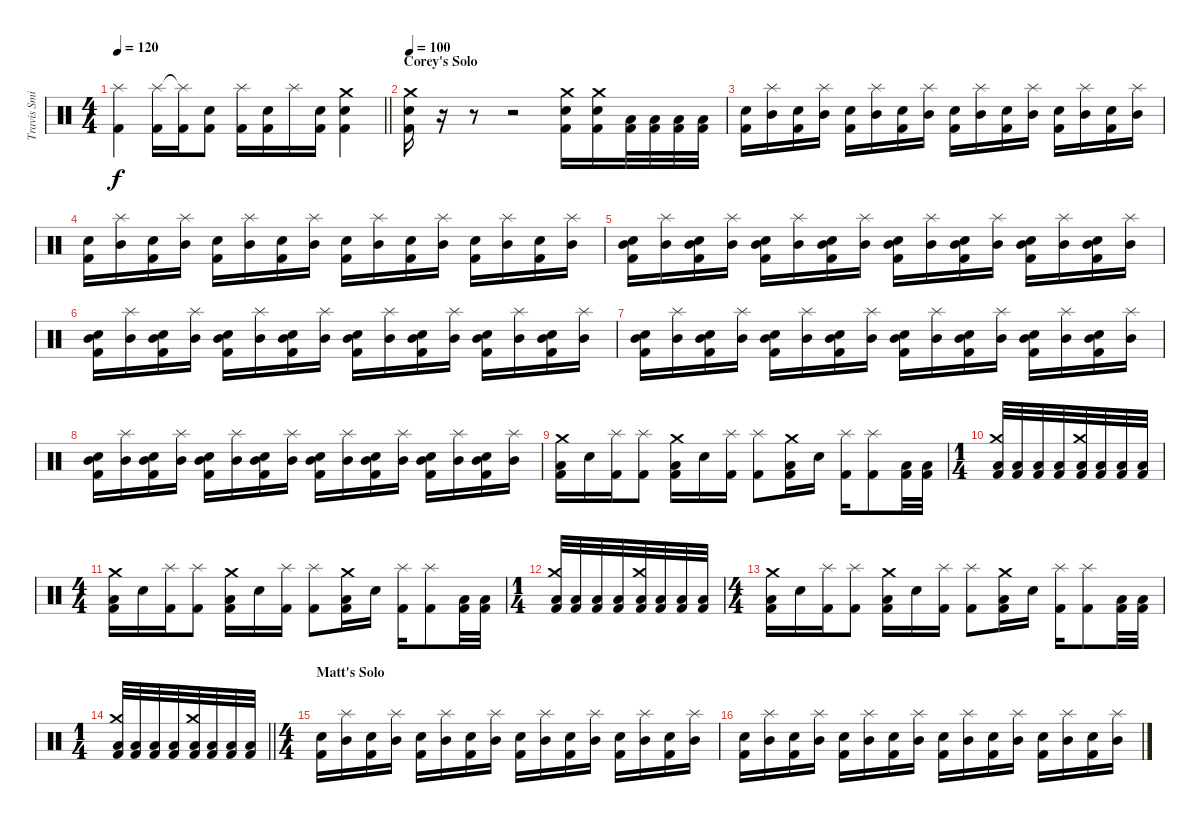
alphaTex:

\track ("Travis Smith" "Travis Smi") {instrument percussion}
\staff {score}
\articulation defaults
\ts (4 4)
\tempo 120
\clef neutral
\barLineRight lightlight
\ks c
("Splash (hit)" "Kick (hit) 2").4{dy f} ("Splash (hit)" "Kick (hit) 2").16 ("Splash (hit)"{t} "Kick (hit) 2").16 ("Snare (hit) 2" "Kick (hit) 2").8 ("Splash (hit)" "Kick (hit) 2").16 ("Snare (hit) 2" "Kick (hit) 2").16 "Splash (hit)".16 ("Snare (hit) 2" "Kick (hit) 2").16 ("Crash medium (hit)" "Snare (hit) 2" "Kick (hit) 2").4 |
\section ("" "Corey's Solo")
\tempo 100
("Crash medium (hit)" "Snare (hit) 2" "Kick (hit) 2").16 r.16 r.8 r.2 ("Crash medium (hit)" "Snare (hit) 2" "Kick (hit) 2").16 ("Crash medium (hit)" "Snare (hit) 2" "Kick (hit) 2").16 ("Low Tom (hit)" "Kick (hit) 2").32 ("Low Tom (hit)" "Kick (hit) 2").32 ("Low Tom (hit)" "Kick (hit) 2").32 ("Low Tom (hit)" "Kick (hit) 2").32 |
("Snare (hit) 2" "Kick (hit) 2").16 ("Splash (hit)" "Mid Tom (hit)").16 ("Snare (hit) 2" "Kick (hit) 2").16 ("Splash (hit)" "Mid Tom (hit)").16 ("Snare (hit) 2" "Kick (hit) 2").16 ("Splash (hit)" "Mid Tom (hit)").16 ("Snare (hit) 2" "Kick (hit) 2").16 ("Splash (hit)" "Mid Tom (hit)").16 ("Snare (hit) 2" "Kick (hit) 2").16 ("Splash (hit)" "Mid Tom (hit)").16 ("Snare (hit) 2" "Kick (hit) 2").16 ("Splash (hit)" "Mid Tom (hit)").16 ("Snare (hit) 2" "Kick (hit) 2").16 ("Splash (hit)" "Mid Tom (hit)").16 ("Snare (hit) 2" "Kick (hit) 2").16 ("Splash (hit)" "Mid Tom (hit)").16 |
("Snare (hit) 2" "Kick (hit) 2").16 ("Splash (hit)" "Mid Tom (hit)").16 ("Snare (hit) 2" "Kick (hit) 2").16 ("Splash (hit)" "Mid Tom (hit)").16 ("Snare (hit) 2" "Kick (hit) 2").16 ("Splash (hit)" "Mid Tom (hit)").16 ("Snare (hit) 2" "Kick (hit) 2").16 ("Splash (hit)" "Mid Tom (hit)").16 ("Snare (hit) 2" "Kick (hit) 2").16 ("Splash (hit)" "Mid Tom (hit)").16 ("Snare (hit) 2" "Kick (hit) 2").16 ("Splash (hit)" "Mid Tom (hit)").16 ("Snare (hit) 2" "Kick (hit) 2").16 ("Splash (hit)" "Mid Tom (hit)").16 ("Snare (hit) 2" "Kick (hit) 2").16 ("Splash (hit)" "Mid Tom (hit)").16 |
("Snare (hit) 2" "Mid Tom (hit)" "Kick (hit) 2").16 ("Splash (hit)" "Mid Tom (hit)").16 ("Snare (hit) 2" "Mid Tom (hit)" "Kick (hit) 2").16 ("Splash (hit)" "Mid Tom (hit)").16 ("Snare (hit) 2" "Mid Tom (hit)" "Kick (hit) 2").16 ("Splash (hit)" "Mid Tom (hit)").16 ("Snare (hit) 2" "Mid Tom (hit)" "Kick (hit) 2").16 ("Splash (hit)" "Mid Tom (hit)").16 ("Snare (hit) 2" "Mid Tom (hit)" "Kick (hit) 2").16 ("Splash (hit)" "Mid Tom (hit)").16 ("Snare (hit) 2" "Mid Tom (hit)" "Kick (hit) 2").16 ("Splash (hit)" "Mid Tom (hit)").16 ("Snare (hit) 2" "Mid Tom (hit)" "Kick (hit) 2").16 ("Splash (hit)" "Mid Tom (hit)").16 ("Snare (hit) 2" "Mid Tom (hit)" "Kick (hit) 2").16 ("Splash (hit)" "Mid Tom (hit)").16 |
("Snare (hit) 2" "Mid Tom (hit)" "Kick (hit) 2").16 ("Splash (hit)" "Mid Tom (hit)").16 ("Snare (hit) 2" "Mid Tom (hit)" "Kick (hit) 2").16 ("Splash (hit)" "Mid Tom (hit)").16 ("Snare (hit) 2" "Mid Tom (hit)" "Kick (hit) 2").16 ("Splash (hit)" "Mid Tom (hit)").16 ("Snare (hit) 2" "Mid Tom (hit)" "Kick (hit) 2").16 ("Splash (hit)" "Mid Tom (hit)").16 ("Snare (hit) 2" "Mid Tom (hit)" "Kick (hit) 2").16 ("Splash (hit)" "Mid Tom (hit)").16 ("Snare (hit) 2" "Mid Tom (hit)" "Kick (hit) 2").16 ("Splash (hit)" "Mid Tom (hit)").16 ("Snare (hit) 2" "Mid Tom (hit)" "Kick (hit) 2").16 ("Splash (hit)" "Mid Tom (hit)").16 ("Snare (hit) 2" "Mid Tom (hit)" "Kick (hit) 2").16 ("Splash (hit)" "Mid Tom (hit)").16 |
("Snare (hit) 2" "Mid Tom (hit)" "Kick (hit) 2").16 ("Splash (hit)" "Mid Tom (hit)").16 ("Snare (hit) 2" "Mid Tom (hit)" "Kick (hit) 2").16 ("Splash (hit)" "Mid Tom (hit)").16 ("Snare (hit) 2" "Mid Tom (hit)" "Kick (hit) 2").16 ("Splash (hit)" "Mid Tom (hit)").16 ("Snare (hit) 2" "Mid Tom (hit)" "Kick (hit) 2").16 ("Splash (hit)" "Mid Tom (hit)").16 ("Snare (hit) 2" "Mid Tom (hit)" "Kick (hit) 2").16 ("Splash (hit)" "Mid Tom (hit)").16 ("Snare (hit) 2" "Mid Tom (hit)" "Kick (hit) 2").16 ("Splash (hit)" "Mid Tom (hit)").16 ("Snare (hit) 2" "Mid Tom (hit)" "Kick (hit) 2").16 ("Splash (hit)" "Mid Tom (hit)").16 ("Snare (hit) 2" "Mid Tom (hit)" "Kick (hit) 2").16 ("Splash (hit)" "Mid Tom (hit)").16 |
("Snare (hit) 2" "Mid Tom (hit)" "Kick (hit) 2").16 ("Splash (hit)" "Mid Tom (hit)").16 ("Snare (hit) 2" "Mid Tom (hit)" "Kick (hit) 2").16 ("Splash (hit)" "Mid Tom (hit)").16 ("Snare (hit) 2" "Mid Tom (hit)" "Kick (hit) 2").16 ("Splash (hit)" "Mid Tom (hit)").16 ("Snare (hit) 2" "Mid Tom (hit)" "Kick (hit) 2").16 ("Splash (hit)" "Mid Tom (hit)").16 ("Snare (hit) 2" "Mid Tom (hit)" "Kick (hit) 2").16 ("Splash (hit)" "Mid Tom (hit)").16 ("Snare (hit) 2" "Mid Tom (hit)" "Kick (hit) 2").16 ("Splash (hit)" "Mid Tom (hit)").16 ("Snare (hit) 2" "Mid Tom (hit)" "Kick (hit) 2").16 ("Splash (hit)" "Mid Tom (hit)").16 ("Snare (hit) 2" "Mid Tom (hit)" "Kick (hit) 2").16 ("Splash (hit)" "Mid Tom (hit)").16 |
("Crash medium (hit)" "Low Floor Tom (hit)" "Kick (hit) 2").16 "Snare (hit) 2".16 ("Splash (hit)" "Kick (hit) 2").16 ("Splash (hit)" "Kick (hit) 2").8 ("Crash medium (hit)" "Low Floor Tom (hit)" "Kick (hit) 2").16 "Snare (hit) 2".16 ("Splash (hit)" "Kick (hit) 2").16 ("Splash (hit)" "Kick (hit) 2").8 ("Crash medium (hit)" "Low Floor Tom (hit)" "Kick (hit) 2").16 "Snare (hit) 2".16 ("Splash (hit)" "Kick (hit) 2").16 ("Splash (hit)" "Kick (hit) 2").8 ("Low Tom (hit)" "Kick (hit) 2").32 ("Low Tom (hit)" "Kick (hit) 2").32 |
\ts (1 4)
("Crash medium (hit)" "Low Tom (hit)" "Kick (hit) 2").32 ("Low Tom (hit)" "Kick (hit) 2").32 ("Low Tom (hit)" "Kick (hit) 2").32 ("Low Tom (hit)" "Kick (hit) 2").32 ("Crash medium (hit)" "Low Tom (hit)" "Kick (hit) 2").32 ("Low Tom (hit)" "Kick (hit) 2").32 ("Low Tom (hit)" "Kick (hit) 2").32 ("Low Tom (hit)" "Kick (hit) 2").32 |
\ts (4 4)
("Crash medium (hit)" "Low Floor Tom (hit)" "Kick (hit) 2").16 "Snare (hit) 2".16 ("Splash (hit)" "Kick (hit) 2").16 ("Splash (hit)" "Kick (hit) 2").8 ("Crash medium (hit)" "Low Floor Tom (hit)" "Kick (hit) 2").16 "Snare (hit) 2".16 ("Splash (hit)" "Kick (hit) 2").16 ("Splash (hit)" "Kick (hit) 2").8 ("Crash medium (hit)" "Low Floor Tom (hit)" "Kick (hit) 2").16 "Snare (hit) 2".16 ("Splash (hit)" "Kick (hit) 2").16 ("Splash (hit)" "Kick (hit) 2").8 ("Low Tom (hit)" "Kick (hit) 2").32 ("Low Tom (hit)" "Kick (hit) 2").32 |
\ts (1 4)
("Crash medium (hit)" "Low Tom (hit)" "Kick (hit) 2").32 ("Low Tom (hit)" "Kick (hit) 2").32 ("Low Tom (hit)" "Kick (hit) 2").32 ("Low Tom (hit)" "Kick (hit) 2").32 ("Crash medium (hit)" "Low Tom (hit)" "Kick (hit) 2").32 ("Low Tom (hit)" "Kick (hit) 2").32 ("Low Tom (hit)" "Kick (hit) 2").32 ("Low Tom (hit)" "Kick (hit) 2").32 |
\ts (4 4)
("Crash medium (hit)" "Low Floor Tom (hit)" "Kick (hit) 2").16 "Snare (hit) 2".16 ("Splash (hit)" "Kick (hit) 2").16 ("Splash (hit)" "Kick (hit) 2").8 ("Crash medium (hit)" "Low Floor Tom (hit)" "Kick (hit) 2").16 "Snare (hit) 2".16 ("Splash (hit)" "Kick (hit) 2").16 ("Splash (hit)" "Kick (hit) 2").8 ("Crash medium (hit)" "Low Floor Tom (hit)" "Kick (hit) 2").16 "Snare (hit) 2".16 ("Splash (hit)" "Kick (hit) 2").16 ("Splash (hit)" "Kick (hit) 2").8 ("Low Tom (hit)" "Kick (hit) 2").32 ("Low Tom (hit)" "Kick (hit) 2").32 |
\ts (1 4)
\barLineRight lightlight
("Crash medium (hit)" "Low Tom (hit)" "Kick (hit) 2").32 ("Low Tom (hit)" "Kick (hit) 2").32 ("Low Tom (hit)" "Kick (hit) 2").32 ("Low Tom (hit)" "Kick (hit) 2").32 ("Crash medium (hit)" "Low Tom (hit)" "Kick (hit) 2").32 ("Low Tom (hit)" "Kick (hit) 2").32 ("Low Tom (hit)" "Kick (hit) 2").32 ("Low Tom (hit)" "Kick (hit) 2").32 |
\ts (4 4)
\section ("" "Matt's Solo")
("Snare (hit) 2" "Kick (hit) 2").16 ("Splash (hit)" "Mid Tom (hit)").16 ("Snare (hit) 2" "Kick (hit) 2").16 ("Splash (hit)" "Mid Tom (hit)").16 ("Snare (hit) 2" "Kick (hit) 2").16 ("Splash (hit)" "Mid Tom (hit)").16 ("Snare (hit) 2" "Kick (hit) 2").16 ("Splash (hit)" "Mid Tom (hit)").16 ("Snare (hit) 2" "Kick (hit) 2").16 ("Splash (hit)" "Mid Tom (hit)").16 ("Snare (hit) 2" "Kick (hit) 2").16 ("Splash (hit)" "Mid Tom (hit)").16 ("Snare (hit) 2" "Kick (hit) 2").16 ("Splash (hit)" "Mid Tom (hit)").16 ("Snare (hit) 2" "Kick (hit) 2").16 ("Splash (hit)" "Mid Tom (hit)").16 |
("Snare (hit) 2" "Kick (hit) 2").16 ("Splash (hit)" "Mid Tom (hit)").16 ("Snare (hit) 2" "Kick (hit) 2").16 ("Splash (hit)" "Mid Tom (hit)").16 ("Snare (hit) 2" "Kick (hit) 2").16 ("Splash (hit)" "Mid Tom (hit)").16 ("Snare (hit) 2" "Kick (hit) 2").16 ("Splash (hit)" "Mid Tom (hit)").16 ("Snare (hit) 2" "Kick (hit) 2").16 ("Splash (hit)" "Mid Tom (hit)").16 ("Snare (hit) 2" "Kick (hit) 2").16 ("Splash (hit)" "Mid Tom (hit)").16 ("Snare (hit) 2" "Kick (hit) 2").16 ("Splash (hit)" "Mid Tom (hit)").16 ("Snare (hit) 2" "Kick (hit) 2").16 ("Splash (hit)" "Mid Tom (hit)").16
